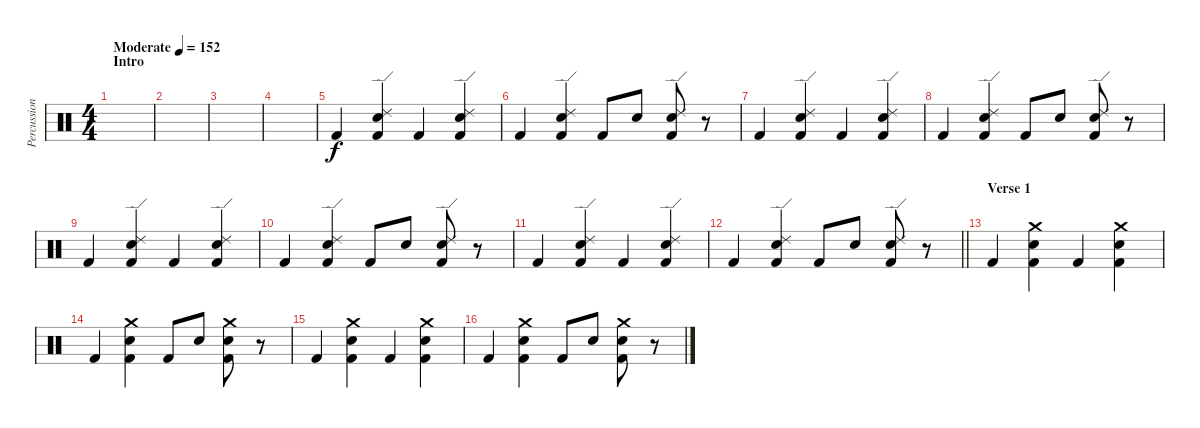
\track ("Percussion" "Percussion") {instrument percussion}
\staff {score}
\articulation defaults
\ts (4 4)
\section ("" "Intro")
\tempo (152 "Moderate")
\clef neutral
\ks c
|
|
|
|
"Kick (hit) 2".4 ("Ride (edge) 2" "Electric Snare (hit)" "Kick (hit) 2").4 "Kick (hit) 2".4 ("Ride (edge) 2" "Electric Snare (hit)" "Kick (hit) 2").4 |
"Kick (hit) 2".4 ("Ride (edge) 2" "Electric Snare (hit)" "Kick (hit) 2").4 "Kick (hit) 2".8 "Electric Snare (hit)".8 ("Ride (edge) 2" "Electric Snare (hit)" "Kick (hit) 2").8 r.8 |
"Kick (hit) 2".4 ("Ride (edge) 2" "Electric Snare (hit)" "Kick (hit) 2").4 "Kick (hit) 2".4 ("Ride (edge) 2" "Electric Snare (hit)" "Kick (hit) 2").4 |
"Kick (hit) 2".4 ("Ride (edge) 2" "Electric Snare (hit)" "Kick (hit) 2").4 "Kick (hit) 2".8 "Electric Snare (hit)".8 ("Ride (edge) 2" "Electric Snare (hit)" "Kick (hit) 2").8 r.8 |
"Kick (hit) 2".4 ("Ride (edge) 2" "Electric Snare (hit)" "Kick (hit) 2").4 "Kick (hit) 2".4 ("Ride (edge) 2" "Electric Snare (hit)" "Kick (hit) 2").4 |
"Kick (hit) 2".4 ("Ride (edge) 2" "Electric Snare (hit)" "Kick (hit) 2").4 "Kick (hit) 2".8 "Electric Snare (hit)".8 ("Ride (edge) 2" "Electric Snare (hit)" "Kick (hit) 2").8 r.8 |
"Kick (hit) 2".4 ("Ride (edge) 2" "Electric Snare (hit)" "Kick (hit) 2").4 "Kick (hit) 2".4 ("Ride (edge) 2" "Electric Snare (hit)" "Kick (hit) 2").4 |
\barLineRight lightlight "Kick (hit) 2".4
("Ride (edge) 2" "Electric Snare (hit)" "Kick (hit) 2").4 "Kick (hit) 2".8 "Electric Snare (hit)".8 ("Ride (edge) 2" "Electric Snare (hit)" "Kick (hit) 2").8 r.8 |
\section ("" "Verse 1")
"Kick (hit) 2".4 ("Crash medium (hit)" "Electric Snare (hit)" "Kick (hit) 2").4 "Kick (hit) 2".4 ("Crash medium (hit)" "Electric Snare (hit)" "Kick (hit) 2").4 |
"Kick (hit) 2".4 ("Crash medium (hit)" "Electric Snare (hit)" "Kick (hit) 2").4 "Kick (hit) 2".8 "Electric Snare (hit)".8 ("Crash medium (hit)" "Electric Snare (hit)" "Kick (hit) 2").8 r.8 |
"Kick (hit) 2".4 ("Crash medium (hit)" "Electric Snare (hit)" "Kick (hit) 2").4 "Kick (hit) 2".4 ("Crash medium (hit)" "Electric Snare (hit)" "Kick (hit) 2").4 |
"Kick (hit) 2".4 ("Crash medium (hit)" "Electric Snare (hit)" "Kick (hit) 2").4 "Kick (hit) 2".8 "Electric Snare (hit)".8 ("Crash medium (hit)" "Electric Snare (hit)" "Kick (hit) 2").8 r.8
